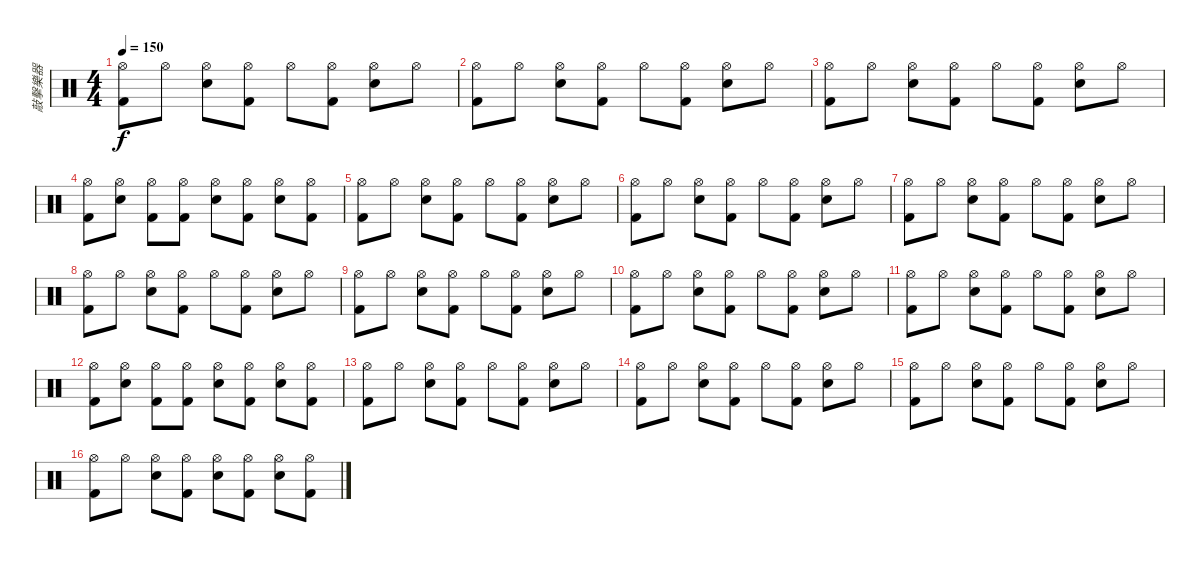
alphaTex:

\track ("敲擊樂器" "敲擊樂器") {instrument percussion}
\staff {score}
\articulation defaults
\ts (4 4)
\tempo 150
\clef neutral
\ks c
("Hi-Hat (open)" "Kick (hit) 2").8{dy f} "Hi-Hat (open)".8 ("Hi-Hat (open)" "Electric Snare (hit)").8 ("Hi-Hat (open)" "Kick (hit) 2").8 "Hi-Hat (open)".8 ("Hi-Hat (open)" "Kick (hit) 2").8 ("Hi-Hat (open)" "Electric Snare (hit)").8 "Hi-Hat (open)".8 |
("Hi-Hat (open)" "Kick (hit) 2").8 "Hi-Hat (open)".8 ("Hi-Hat (open)" "Electric Snare (hit)").8 ("Hi-Hat (open)" "Kick (hit) 2").8 "Hi-Hat (open)".8 ("Hi-Hat (open)" "Kick (hit) 2").8 ("Hi-Hat (open)" "Electric Snare (hit)").8 "Hi-Hat (open)".8 |
("Hi-Hat (open)" "Kick (hit) 2").8 "Hi-Hat (open)".8 ("Hi-Hat (open)" "Electric Snare (hit)").8 ("Hi-Hat (open)" "Kick (hit) 2").8 "Hi-Hat (open)".8 ("Hi-Hat (open)" "Kick (hit) 2").8 ("Hi-Hat (open)" "Electric Snare (hit)").8 "Hi-Hat (open)".8 |
("Hi-Hat (open)" "Kick (hit) 2").8 ("Hi-Hat (open)" "Electric Snare (hit)").8 ("Hi-Hat (open)" "Kick (hit) 2").8 ("Hi-Hat (open)" "Kick (hit) 2").8 ("Hi-Hat (open)" "Electric Snare (hit)").8 ("Hi-Hat (open)" "Kick (hit) 2").8 ("Hi-Hat (open)" "Electric Snare (hit)").8 ("Hi-Hat (open)" "Kick (hit) 2").8 |
("Hi-Hat (open)" "Kick (hit) 2").8 "Hi-Hat (open)".8 ("Hi-Hat (open)" "Electric Snare (hit)").8 ("Hi-Hat (open)" "Kick (hit) 2").8 "Hi-Hat (open)".8 ("Hi-Hat (open)" "Kick (hit) 2").8 ("Hi-Hat (open)" "Electric Snare (hit)").8 "Hi-Hat (open)".8 |
("Hi-Hat (open)" "Kick (hit) 2").8 "Hi-Hat (open)".8 ("Hi-Hat (open)" "Electric Snare (hit)").8 ("Hi-Hat (open)" "Kick (hit) 2").8 "Hi-Hat (open)".8 ("Hi-Hat (open)" "Kick (hit) 2").8 ("Hi-Hat (open)" "Electric Snare (hit)").8 "Hi-Hat (open)".8 |
("Hi-Hat (open)" "Kick (hit) 2").8 "Hi-Hat (open)".8 ("Hi-Hat (open)" "Electric Snare (hit)").8 ("Hi-Hat (open)" "Kick (hit) 2").8 "Hi-Hat (open)".8 ("Hi-Hat (open)" "Kick (hit) 2").8 ("Hi-Hat (open)" "Electric Snare (hit)").8 "Hi-Hat (open)".8 |
("Hi-Hat (open)" "Kick (hit) 2").8 "Hi-Hat (open)".8 ("Hi-Hat (open)" "Electric Snare (hit)").8 ("Hi-Hat (open)" "Kick (hit) 2").8 "Hi-Hat (open)".8 ("Hi-Hat (open)" "Kick (hit) 2").8 ("Hi-Hat (open)" "Electric Snare (hit)").8 "Hi-Hat (open)".8 |
("Hi-Hat (open)" "Kick (hit) 2").8 "Hi-Hat (open)".8 ("Hi-Hat (open)" "Electric Snare (hit)").8 ("Hi-Hat (open)" "Kick (hit) 2").8 "Hi-Hat (open)".8 ("Hi-Hat (open)" "Kick (hit) 2").8 ("Hi-Hat (open)" "Electric Snare (hit)").8 "Hi-Hat (open)".8 |
("Hi-Hat (open)" "Kick (hit) 2").8 "Hi-Hat (open)".8 ("Hi-Hat (open)" "Electric Snare (hit)").8 ("Hi-Hat (open)" "Kick (hit) 2").8 "Hi-Hat (open)".8 ("Hi-Hat (open)" "Kick (hit) 2").8 ("Hi-Hat (open)" "Electric Snare (hit)").8 "Hi-Hat (open)".8 |
("Hi-Hat (open)" "Kick (hit) 2").8 "Hi-Hat (open)".8 ("Hi-Hat (open)" "Electric Snare (hit)").8 ("Hi-Hat (open)" "Kick (hit) 2").8 "Hi-Hat (open)".8 ("Hi-Hat (open)" "Kick (hit) 2").8 ("Hi-Hat (open)" "Electric Snare (hit)").8 "Hi-Hat (open)".8 |
("Hi-Hat (open)" "Kick (hit) 2").8 ("Hi-Hat (open)" "Electric Snare (hit)").8 ("Hi-Hat (open)" "Kick (hit) 2").8 ("Hi-Hat (open)" "Kick (hit) 2").8 ("Hi-Hat (open)" "Electric Snare (hit)").8 ("Hi-Hat (open)" "Kick (hit) 2").8 ("Hi-Hat (open)" "Electric Snare (hit)").8 ("Hi-Hat (open)" "Kick (hit) 2").8 |
("Hi-Hat (open)" "Kick (hit) 2").8 "Hi-Hat (open)".8 ("Hi-Hat (open)" "Electric Snare (hit)").8 ("Hi-Hat (open)" "Kick (hit) 2").8 "Hi-Hat (open)".8 ("Hi-Hat (open)" "Kick (hit) 2").8 ("Hi-Hat (open)" "Electric Snare (hit)").8 "Hi-Hat (open)".8 |
("Hi-Hat (open)" "Kick (hit) 2").8 "Hi-Hat (open)".8 ("Hi-Hat (open)" "Electric Snare (hit)").8 ("Hi-Hat (open)" "Kick (hit) 2").8 "Hi-Hat (open)".8 ("Hi-Hat (open)" "Kick (hit) 2").8 ("Hi-Hat (open)" "Electric Snare (hit)").8 "Hi-Hat (open)".8 |
("Hi-Hat (open)" "Kick (hit) 2").8 "Hi-Hat (open)".8 ("Hi-Hat (open)" "Electric Snare (hit)").8 ("Hi-Hat (open)" "Kick (hit) 2").8 "Hi-Hat (open)".8 ("Hi-Hat (open)" "Kick (hit) 2").8 ("Hi-Hat (open)" "Electric Snare (hit)").8 "Hi-Hat (open)".8 |
("Hi-Hat (open)" "Kick (hit) 2").8 "Hi-Hat (open)".8 ("Hi-Hat (open)" "Electric Snare (hit)").8 ("Hi-Hat (open)" "Kick (hit) 2").8 ("Hi-Hat (open)" "Electric Snare (hit)").8 ("Hi-Hat (open)" "Kick (hit) 2").8 ("Hi-Hat (open)" "Electric Snare (hit)").8 ("Hi-Hat (open)" "Kick (hit) 2").8
